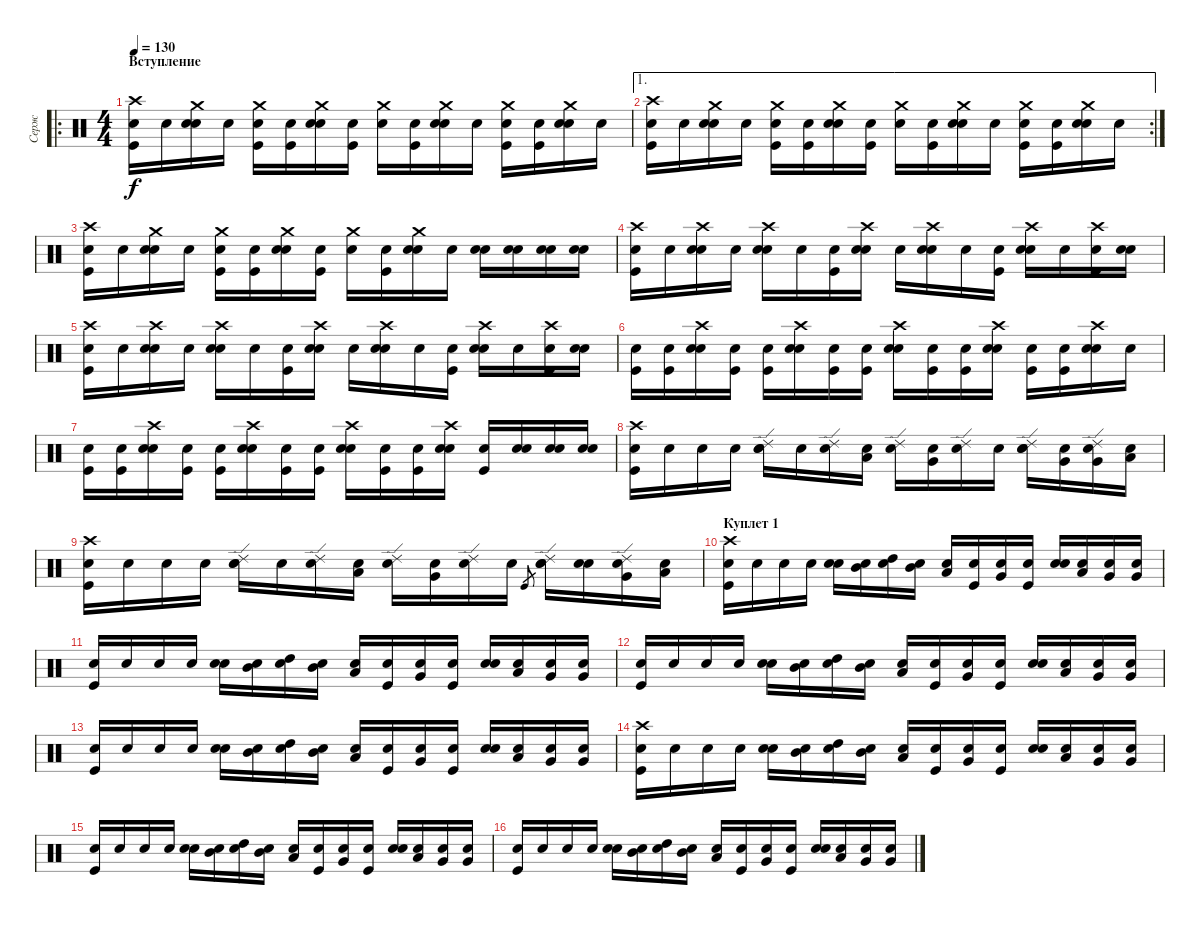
\track ("Серж" "Серж") {instrument percussion}
\staff {score}
\articulation defaults
\ro
\ts (4 4)
\section ("" "Вступление")
\tempo 130
\clef neutral
\ks c
("Snare (hit)"{x} "Kick (hit)" "Crash high (hit)").16{dy f} "Snare (hit)"{x}.16 ("Snare (hit)"{x} "Snare (hit) 2" "Crash medium (hit)").16 "Snare (hit)"{x}.16 ("Snare (hit)"{x} "Kick (hit)" "Crash medium (hit)").16 ("Snare (hit)"{x} "Kick (hit)").16 ("Snare (hit)"{x} "Snare (hit) 2" "Crash medium (hit)").16 ("Snare (hit)"{x} "Kick (hit)").16 ("Snare (hit)"{x} "Crash medium (hit)").16 ("Snare (hit)"{x} "Kick (hit)").16 ("Snare (hit)"{x} "Snare (hit) 2" "Crash medium (hit)").16 "Snare (hit)"{x}.16 ("Snare (hit)"{x} "Kick (hit)" "Crash medium (hit)").16 ("Snare (hit)"{x} "Kick (hit)").16 ("Snare (hit)"{x} "Snare (hit) 2" "Crash medium (hit)").16 "Snare (hit)"{x}.16 |
\ae 1
\rc 2
("Snare (hit)"{x} "Kick (hit)" "Crash high (hit)").16 "Snare (hit)"{x}.16 ("Snare (hit)"{x} "Snare (hit) 2" "Crash medium (hit)").16 "Snare (hit)"{x}.16 ("Snare (hit)"{x} "Kick (hit)" "Crash medium (hit)").16 ("Snare (hit)"{x} "Kick (hit)").16 ("Snare (hit)"{x} "Snare (hit) 2" "Crash medium (hit)").16 ("Snare (hit)"{x} "Kick (hit)").16 ("Snare (hit)"{x} "Crash medium (hit)").16 ("Snare (hit)"{x} "Kick (hit)").16 ("Snare (hit)"{x} "Snare (hit) 2" "Crash medium (hit)").16 "Snare (hit)"{x}.16 ("Snare (hit)"{x} "Kick (hit)" "Crash medium (hit)").16 ("Snare (hit)"{x} "Kick (hit)").16 ("Snare (hit)"{x} "Snare (hit) 2" "Crash medium (hit)").16 "Snare (hit)"{x}.16 |
("Snare (hit)"{x} "Kick (hit)" "Crash high (hit)").16 "Snare (hit)"{x}.16 ("Snare (hit)"{x} "Snare (hit) 2" "Crash medium (hit)").16 "Snare (hit)"{x}.16 ("Snare (hit)"{x} "Kick (hit)" "Crash medium (hit)").16 ("Snare (hit)"{x} "Kick (hit)").16 ("Snare (hit)"{x} "Snare (hit) 2" "Crash medium (hit)").16 ("Snare (hit)"{x} "Kick (hit)").16 ("Snare (hit)"{x} "Crash medium (hit)").16 ("Snare (hit)"{x} "Kick (hit)").16 ("Snare (hit)"{x} "Snare (hit) 2" "Crash medium (hit)").16 "Snare (hit)"{x}.16 ("Snare (hit)"{x} "Snare (hit) 2").16 ("Snare (hit)"{x} "Snare (hit) 2").16 ("Snare (hit)"{x} "Snare (hit) 2").16 ("Snare (hit)"{x} "Snare (hit) 2").16 |
("Snare (hit)"{x} "Kick (hit)" "Crash high (hit)").16 "Snare (hit)"{x}.16 ("Snare (hit)"{x} "Snare (hit) 2" "Crash high (hit)").16 "Snare (hit)"{x}.16 ("Snare (hit)"{x} "Snare (hit) 2" "Crash high (hit)").16 "Snare (hit)"{x}.16 ("Snare (hit)"{x} "Kick (hit)").16 ("Snare (hit)"{x} "Snare (hit) 2" "Crash high (hit)").16 "Snare (hit)"{x}.16 ("Snare (hit)"{x} "Snare (hit) 2" "Crash high (hit)").16 "Snare (hit)"{x}.16 ("Snare (hit)"{x} "Kick (hit)").16 ("Snare (hit)"{x} "Snare (hit) 2" "Crash high (hit)").16 "Snare (hit)"{x}.16 ("Snare (hit)"{x} "Kick (hit)" "Crash high (hit)").16 ("Snare (hit)"{x} "Snare (hit) 2").16 |
("Snare (hit)"{x} "Kick (hit)" "Crash high (hit)").16 "Snare (hit)"{x}.16 ("Snare (hit)"{x} "Snare (hit) 2" "Crash high (hit)").16 "Snare (hit)"{x}.16 ("Snare (hit)"{x} "Snare (hit) 2" "Crash high (hit)").16 "Snare (hit)"{x}.16 ("Snare (hit)"{x} "Kick (hit)").16 ("Snare (hit)"{x} "Snare (hit) 2" "Crash high (hit)").16 "Snare (hit)"{x}.16 ("Snare (hit)"{x} "Snare (hit) 2" "Crash high (hit)").16 "Snare (hit)"{x}.16 ("Snare (hit)"{x} "Kick (hit)").16 ("Snare (hit)"{x} "Snare (hit) 2" "Crash high (hit)").16 "Snare (hit)"{x}.16 ("Snare (hit)"{x} "Kick (hit)" "Crash high (hit)").16 ("Snare (hit)"{x} "Snare (hit) 2").16 |
("Snare (hit)"{x} "Kick (hit)").16 ("Snare (hit)"{x} "Kick (hit)").16 ("Snare (hit)"{x} "Snare (hit) 2" "Crash high (hit)").16 ("Snare (hit)"{x} "Kick (hit)").16 ("Snare (hit)"{x} "Kick (hit)").16 ("Snare (hit)"{x} "Snare (hit) 2" "Crash high (hit)").16 ("Snare (hit)"{x} "Kick (hit)").16 ("Snare (hit)"{x} "Kick (hit)").16 ("Snare (hit)"{x} "Snare (hit) 2" "Crash high (hit)").16 ("Snare (hit)"{x} "Kick (hit)").16 ("Snare (hit)"{x} "Kick (hit)").16 ("Snare (hit)"{x} "Snare (hit) 2" "Crash high (hit)").16 ("Snare (hit)"{x} "Kick (hit)").16 ("Snare (hit)"{x} "Kick (hit)").16 ("Snare (hit)"{x} "Snare (hit) 2" "Crash high (hit)").16 "Snare (hit)"{x}.16 |
("Snare (hit)"{x} "Kick (hit)").16 ("Snare (hit)"{x} "Kick (hit)").16 ("Snare (hit)"{x} "Snare (hit) 2" "Crash high (hit)").16 ("Snare (hit)"{x} "Kick (hit)").16 ("Snare (hit)"{x} "Kick (hit)").16 ("Snare (hit)"{x} "Snare (hit) 2" "Crash high (hit)").16 ("Snare (hit)"{x} "Kick (hit)").16 ("Snare (hit)"{x} "Kick (hit)").16 ("Snare (hit)"{x} "Snare (hit) 2" "Crash high (hit)").16 ("Snare (hit)"{x} "Kick (hit)").16 ("Snare (hit)"{x} "Kick (hit)").16 ("Snare (hit)"{x} "Snare (hit) 2" "Crash high (hit)").16 ("Snare (hit)"{x} "Kick (hit)").16 ("Snare (hit)"{x} "Snare (hit) 2").16 ("Snare (hit)"{x} "Snare (hit) 2").16 ("Snare (hit)"{x} "Snare (hit) 2").16 |
("Snare (hit)"{x} "Kick (hit)" "Crash high (hit)").16 "Snare (hit)"{x}.16 "Snare (hit)"{x}.16 "Snare (hit)"{x}.16 ("Snare (hit)"{x} "Snare (hit) 2" "Ride (edge) 2").16 "Snare (hit)"{x}.16 ("Snare (hit)"{x} "Ride (edge) 2").16 ("Snare (hit)"{x} "Low Tom (hit)").16 ("Snare (hit)"{x} "Ride (edge) 2").16 ("Snare (hit)"{x} "Very Low Tom (hit)").16 ("Snare (hit)"{x} "Ride (edge) 2").16 "Snare (hit)"{x}.16 ("Snare (hit)"{x} "Snare (hit) 2" "Ride (edge) 2").16 ("Snare (hit)"{x} "Very Low Tom (hit)").16 ("Snare (hit)"{x} "Very Low Tom (hit)" "Ride (edge) 2").16 ("Snare (hit)"{x} "Low Floor Tom (hit)").16 |
("Snare (hit)"{x} "Kick (hit)" "Crash high (hit)").16 "Snare (hit)"{x}.16 "Snare (hit)"{x}.16 "Snare (hit)"{x}.16 ("Snare (hit)"{x} "Snare (hit) 2" "Ride (edge) 2").16 "Snare (hit)"{x}.16 ("Snare (hit)"{x} "Ride (edge) 2").16 ("Snare (hit)"{x} "Low Tom (hit)").16 ("Snare (hit)"{x} "Ride (edge) 2").16 ("Snare (hit)"{x} "Very Low Tom (hit)").16 ("Snare (hit)"{x} "Ride (edge) 2").16 "Snare (hit)"{x}.16 "Kick (hit)".8{gr} ("Snare (hit)"{x} "Snare (hit) 2" "Ride (edge) 2").16 ("Snare (hit)"{x} "Snare (hit) 2").16 ("Snare (hit)"{x} "Very Low Tom (hit)" "Ride (edge) 2").16 ("Snare (hit)"{x} "Low Floor Tom (hit)").16 |
\section ("" "Куплет 1")
("Snare (hit)"{x} "Kick (hit)" "Crash high (hit)").16 "Snare (hit)"{x}.16 "Snare (hit)"{x}.16 "Snare (hit)"{x}.16 ("Snare (hit)"{x} "Snare (hit) 2").16 ("Snare (hit)"{x} "Mid Tom (hit)").16 ("Snare (hit)"{x} "High Tom (hit)").16 ("Snare (hit)"{x} "Mid Tom (hit)").16 ("Snare (hit)"{x} "Low Tom (hit)").16 ("Snare (hit)"{x} "Kick (hit)").16 ("Snare (hit)"{x} "Very Low Tom (hit)").16 ("Snare (hit)"{x} "Kick (hit)").16 ("Snare (hit)"{x} "Snare (hit) 2").16 ("Snare (hit)"{x} "Low Tom (hit)").16 ("Snare (hit)"{x} "Very Low Tom (hit)").16 ("Snare (hit)"{x} "Very Low Tom (hit)").16 |
("Snare (hit)"{x} "Kick (hit)").16 "Snare (hit)"{x}.16 "Snare (hit)"{x}.16 "Snare (hit)"{x}.16 ("Snare (hit)"{x} "Snare (hit) 2").16 ("Snare (hit)"{x} "Mid Tom (hit)").16 ("Snare (hit)"{x} "High Tom (hit)").16 ("Snare (hit)"{x} "Mid Tom (hit)").16 ("Snare (hit)"{x} "Low Tom (hit)").16 ("Snare (hit)"{x} "Kick (hit)").16 ("Snare (hit)"{x} "Very Low Tom (hit)").16 ("Snare (hit)"{x} "Kick (hit)").16 ("Snare (hit)"{x} "Snare (hit) 2").16 ("Snare (hit)"{x} "Low Tom (hit)").16 ("Snare (hit)"{x} "Very Low Tom (hit)").16 ("Snare (hit)"{x} "Very Low Tom (hit)").16 |
("Snare (hit)"{x} "Kick (hit)").16 "Snare (hit)"{x}.16 "Snare (hit)"{x}.16 "Snare (hit)"{x}.16 ("Snare (hit)"{x} "Snare (hit) 2").16 ("Snare (hit)"{x} "Mid Tom (hit)").16 ("Snare (hit)"{x} "High Tom (hit)").16 ("Snare (hit)"{x} "Mid Tom (hit)").16 ("Snare (hit)"{x} "Low Tom (hit)").16 ("Snare (hit)"{x} "Kick (hit)").16 ("Snare (hit)"{x} "Very Low Tom (hit)").16 ("Snare (hit)"{x} "Kick (hit)").16 ("Snare (hit)"{x} "Snare (hit) 2").16 ("Snare (hit)"{x} "Low Tom (hit)").16 ("Snare (hit)"{x} "Very Low Tom (hit)").16 ("Snare (hit)"{x} "Very Low Tom (hit)").16 |
("Snare (hit)"{x} "Kick (hit)").16 "Snare (hit)"{x}.16 "Snare (hit)"{x}.16 "Snare (hit)"{x}.16 ("Snare (hit)"{x} "Snare (hit) 2").16 ("Snare (hit)"{x} "Mid Tom (hit)").16 ("Snare (hit)"{x} "High Tom (hit)").16 ("Snare (hit)"{x} "Mid Tom (hit)").16 ("Snare (hit)"{x} "Low Tom (hit)").16 ("Snare (hit)"{x} "Kick (hit)").16 ("Snare (hit)"{x} "Very Low Tom (hit)").16 ("Snare (hit)"{x} "Kick (hit)").16 ("Snare (hit)"{x} "Snare (hit) 2").16 ("Snare (hit)"{x} "Low Tom (hit)").16 ("Snare (hit)"{x} "Very Low Tom (hit)").16 ("Snare (hit)"{x} "Very Low Tom (hit)").16 |
("Snare (hit)"{x} "Kick (hit)" "Crash high (hit)").16 "Snare (hit)"{x}.16 "Snare (hit)"{x}.16 "Snare (hit)"{x}.16 ("Snare (hit)"{x} "Snare (hit) 2").16 ("Snare (hit)"{x} "Mid Tom (hit)").16 ("Snare (hit)"{x} "High Tom (hit)").16 ("Snare (hit)"{x} "Mid Tom (hit)").16 ("Snare (hit)"{x} "Low Tom (hit)").16 ("Snare (hit)"{x} "Kick (hit)").16 ("Snare (hit)"{x} "Very Low Tom (hit)").16 ("Snare (hit)"{x} "Kick (hit)").16 ("Snare (hit)"{x} "Snare (hit) 2").16 ("Snare (hit)"{x} "Low Tom (hit)").16 ("Snare (hit)"{x} "Very Low Tom (hit)").16 ("Snare (hit)"{x} "Very Low Tom (hit)").16 |
("Snare (hit)"{x} "Kick (hit)").16 "Snare (hit)"{x}.16 "Snare (hit)"{x}.16 "Snare (hit)"{x}.16 ("Snare (hit)"{x} "Snare (hit) 2").16 ("Snare (hit)"{x} "Mid Tom (hit)").16 ("Snare (hit)"{x} "High Tom (hit)").16 ("Snare (hit)"{x} "Mid Tom (hit)").16 ("Snare (hit)"{x} "Low Tom (hit)").16 ("Snare (hit)"{x} "Kick (hit)").16 ("Snare (hit)"{x} "Very Low Tom (hit)").16 ("Snare (hit)"{x} "Kick (hit)").16 ("Snare (hit)"{x} "Snare (hit) 2").16 ("Snare (hit)"{x} "Low Tom (hit)").16 ("Snare (hit)"{x} "Very Low Tom (hit)").16 ("Snare (hit)"{x} "Very Low Tom (hit)").16 |
("Snare (hit)"{x} "Kick (hit)").16 "Snare (hit)"{x}.16 "Snare (hit)"{x}.16 "Snare (hit)"{x}.16 ("Snare (hit)"{x} "Snare (hit) 2").16 ("Snare (hit)"{x} "Mid Tom (hit)").16 ("Snare (hit)"{x} "High Tom (hit)").16 ("Snare (hit)"{x} "Mid Tom (hit)").16 ("Snare (hit)"{x} "Low Tom (hit)").16 ("Snare (hit)"{x} "Kick (hit)").16 ("Snare (hit)"{x} "Very Low Tom (hit)").16 ("Snare (hit)"{x} "Kick (hit)").16 ("Snare (hit)"{x} "Snare (hit) 2").16 ("Snare (hit)"{x} "Low Tom (hit)").16 ("Snare (hit)"{x} "Very Low Tom (hit)").16 ("Snare (hit)"{x} "Very Low Tom (hit)").16
